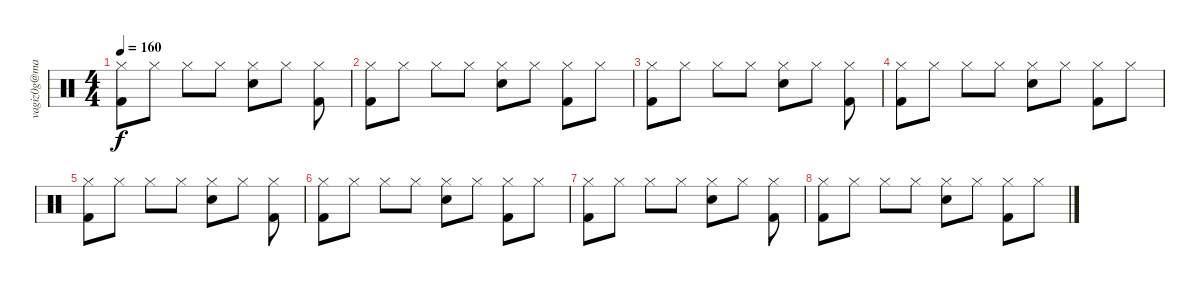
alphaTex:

\track ("vagiz0g@mail.ru" "vagiz0g@ma") {instrument percussion}
\staff {score}
\articulation defaults
\ts (4 4)
\tempo 160
\clef neutral
\ks c
("Kick (hit) 2" "Hi-Hat (closed)").8{dy f} "Hi-Hat (closed)".8 "Hi-Hat (closed)".8 "Hi-Hat (closed)".8 ("Hand Clap (hit)" "Hi-Hat (closed)").8 "Hi-Hat (closed)".8 ("Kick (hit) 2" "Hi-Hat (closed)").8 |
("Kick (hit) 2" "Hi-Hat (closed)").8 "Hi-Hat (closed)".8 "Hi-Hat (closed)".8 "Hi-Hat (closed)".8 ("Hand Clap (hit)" "Hi-Hat (closed)").8 "Hi-Hat (closed)".8 ("Kick (hit) 2" "Hi-Hat (closed)").8 "Hi-Hat (closed)".8 |
("Kick (hit) 2" "Hi-Hat (closed)").8 "Hi-Hat (closed)".8 "Hi-Hat (closed)".8 "Hi-Hat (closed)".8 ("Hand Clap (hit)" "Hi-Hat (closed)").8 "Hi-Hat (closed)".8 ("Kick (hit) 2" "Hi-Hat (closed)").8 |
("Kick (hit) 2" "Hi-Hat (closed)").8 "Hi-Hat (closed)".8 "Hi-Hat (closed)".8 "Hi-Hat (closed)".8 ("Hand Clap (hit)" "Hi-Hat (closed)").8 "Hi-Hat (closed)".8 ("Kick (hit) 2" "Hi-Hat (closed)").8 "Hi-Hat (closed)".8 |
("Kick (hit) 2" "Hi-Hat (closed)").8 "Hi-Hat (closed)".8 "Hi-Hat (closed)".8 "Hi-Hat (closed)".8 ("Hand Clap (hit)" "Hi-Hat (closed)").8 "Hi-Hat (closed)".8 ("Kick (hit) 2" "Hi-Hat (closed)").8 |
("Kick (hit) 2" "Hi-Hat (closed)").8 "Hi-Hat (closed)".8 "Hi-Hat (closed)".8 "Hi-Hat (closed)".8 ("Hand Clap (hit)" "Hi-Hat (closed)").8 "Hi-Hat (closed)".8 ("Kick (hit) 2" "Hi-Hat (closed)").8 "Hi-Hat (closed)".8 |
("Kick (hit) 2" "Hi-Hat (closed)").8 "Hi-Hat (closed)".8 "Hi-Hat (closed)".8 "Hi-Hat (closed)".8 ("Hand Clap (hit)" "Hi-Hat (closed)").8 "Hi-Hat (closed)".8 ("Kick (hit) 2" "Hi-Hat (closed)").8 |
("Kick (hit) 2" "Hi-Hat (closed)").8 "Hi-Hat (closed)".8 "Hi-Hat (closed)".8 "Hi-Hat (closed)".8 ("Hand Clap (hit)" "Hi-Hat (closed)").8 "Hi-Hat (closed)".8 ("Kick (hit) 2" "Hi-Hat (closed)").8 "Hi-Hat (closed)".8
